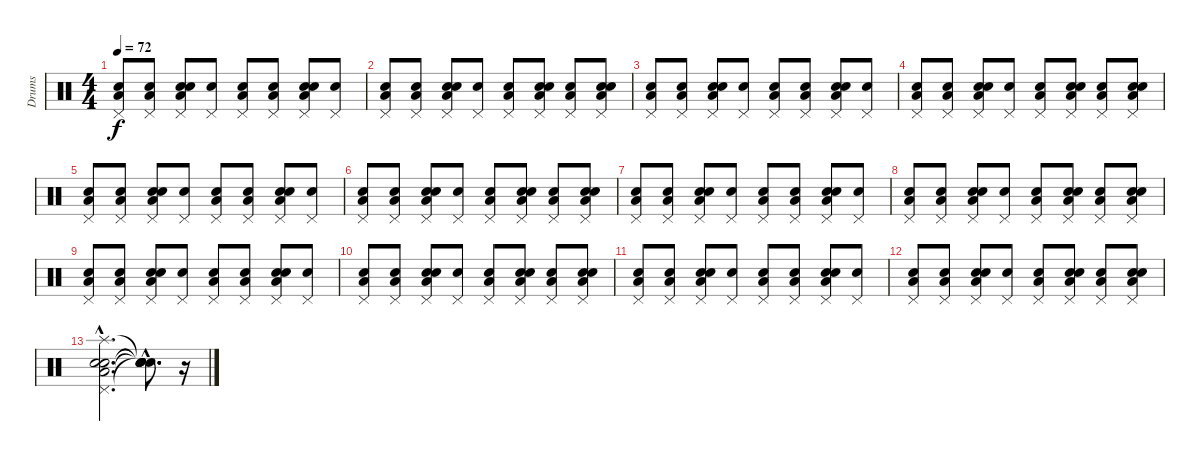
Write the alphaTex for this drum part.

\track ("Drums" "Drums") {instrument percussion}
\staff {score}
\articulation defaults
\ts (4 4)
\tempo 72
\clef neutral
\ks c
("Snare (hit)" "Low Floor Tom (hit)" "Pedal Hi-Hat (hit)").8{dy f} ("Snare (hit)" "Low Floor Tom (hit)" "Pedal Hi-Hat (hit)").8 ("Snare (hit)" "Electric Snare (hit)" "Low Floor Tom (hit)" "Pedal Hi-Hat (hit)").8 ("Snare (hit)" "Pedal Hi-Hat (hit)").8 ("Snare (hit)" "Low Floor Tom (hit)" "Pedal Hi-Hat (hit)").8 ("Snare (hit)" "Low Floor Tom (hit)" "Pedal Hi-Hat (hit)").8 ("Snare (hit)" "Electric Snare (hit)" "Low Floor Tom (hit)" "Pedal Hi-Hat (hit)").8 ("Snare (hit)" "Pedal Hi-Hat (hit)").8 |
("Snare (hit)" "Low Floor Tom (hit)" "Pedal Hi-Hat (hit)").8 ("Snare (hit)" "Low Floor Tom (hit)" "Pedal Hi-Hat (hit)").8 ("Snare (hit)" "Electric Snare (hit)" "Low Floor Tom (hit)" "Pedal Hi-Hat (hit)").8 ("Snare (hit)" "Pedal Hi-Hat (hit)").8 ("Snare (hit)" "Low Floor Tom (hit)" "Pedal Hi-Hat (hit)").8 ("Snare (hit)" "Electric Snare (hit)" "Low Floor Tom (hit)" "Pedal Hi-Hat (hit)").8 ("Snare (hit)" "Low Floor Tom (hit)" "Pedal Hi-Hat (hit)").8 ("Snare (hit)" "Electric Snare (hit)" "Low Floor Tom (hit)" "Pedal Hi-Hat (hit)").8 |
("Snare (hit)" "Low Floor Tom (hit)" "Pedal Hi-Hat (hit)").8 ("Snare (hit)" "Low Floor Tom (hit)" "Pedal Hi-Hat (hit)").8 ("Snare (hit)" "Electric Snare (hit)" "Low Floor Tom (hit)" "Pedal Hi-Hat (hit)").8 ("Snare (hit)" "Pedal Hi-Hat (hit)").8 ("Snare (hit)" "Low Floor Tom (hit)" "Pedal Hi-Hat (hit)").8 ("Snare (hit)" "Low Floor Tom (hit)" "Pedal Hi-Hat (hit)").8 ("Snare (hit)" "Electric Snare (hit)" "Low Floor Tom (hit)" "Pedal Hi-Hat (hit)").8 ("Snare (hit)" "Pedal Hi-Hat (hit)").8 |
("Snare (hit)" "Low Floor Tom (hit)" "Pedal Hi-Hat (hit)").8 ("Snare (hit)" "Low Floor Tom (hit)" "Pedal Hi-Hat (hit)").8 ("Snare (hit)" "Electric Snare (hit)" "Low Floor Tom (hit)" "Pedal Hi-Hat (hit)").8 ("Snare (hit)" "Pedal Hi-Hat (hit)").8 ("Snare (hit)" "Low Floor Tom (hit)" "Pedal Hi-Hat (hit)").8 ("Snare (hit)" "Electric Snare (hit)" "Low Floor Tom (hit)" "Pedal Hi-Hat (hit)").8 ("Snare (hit)" "Low Floor Tom (hit)" "Pedal Hi-Hat (hit)").8 ("Snare (hit)" "Electric Snare (hit)" "Low Floor Tom (hit)" "Pedal Hi-Hat (hit)").8 |
("Snare (hit)" "Low Floor Tom (hit)" "Pedal Hi-Hat (hit)").8 ("Snare (hit)" "Low Floor Tom (hit)" "Pedal Hi-Hat (hit)").8 ("Snare (hit)" "Electric Snare (hit)" "Low Floor Tom (hit)" "Pedal Hi-Hat (hit)").8 ("Snare (hit)" "Pedal Hi-Hat (hit)").8 ("Snare (hit)" "Low Floor Tom (hit)" "Pedal Hi-Hat (hit)").8 ("Snare (hit)" "Low Floor Tom (hit)" "Pedal Hi-Hat (hit)").8 ("Snare (hit)" "Electric Snare (hit)" "Low Floor Tom (hit)" "Pedal Hi-Hat (hit)").8 ("Snare (hit)" "Pedal Hi-Hat (hit)").8 |
("Snare (hit)" "Low Floor Tom (hit)" "Pedal Hi-Hat (hit)").8 ("Snare (hit)" "Low Floor Tom (hit)" "Pedal Hi-Hat (hit)").8 ("Snare (hit)" "Electric Snare (hit)" "Low Floor Tom (hit)" "Pedal Hi-Hat (hit)").8 ("Snare (hit)" "Pedal Hi-Hat (hit)").8 ("Snare (hit)" "Low Floor Tom (hit)" "Pedal Hi-Hat (hit)").8 ("Snare (hit)" "Electric Snare (hit)" "Low Floor Tom (hit)" "Pedal Hi-Hat (hit)").8 ("Snare (hit)" "Low Floor Tom (hit)" "Pedal Hi-Hat (hit)").8 ("Snare (hit)" "Electric Snare (hit)" "Low Floor Tom (hit)" "Pedal Hi-Hat (hit)").8 |
("Snare (hit)" "Low Floor Tom (hit)" "Pedal Hi-Hat (hit)").8 ("Snare (hit)" "Low Floor Tom (hit)" "Pedal Hi-Hat (hit)").8 ("Snare (hit)" "Electric Snare (hit)" "Low Floor Tom (hit)" "Pedal Hi-Hat (hit)").8 ("Snare (hit)" "Pedal Hi-Hat (hit)").8 ("Snare (hit)" "Low Floor Tom (hit)" "Pedal Hi-Hat (hit)").8 ("Snare (hit)" "Low Floor Tom (hit)" "Pedal Hi-Hat (hit)").8 ("Snare (hit)" "Electric Snare (hit)" "Low Floor Tom (hit)" "Pedal Hi-Hat (hit)").8 ("Snare (hit)" "Pedal Hi-Hat (hit)").8 |
("Snare (hit)" "Low Floor Tom (hit)" "Pedal Hi-Hat (hit)").8 ("Snare (hit)" "Low Floor Tom (hit)" "Pedal Hi-Hat (hit)").8 ("Snare (hit)" "Electric Snare (hit)" "Low Floor Tom (hit)" "Pedal Hi-Hat (hit)").8 ("Snare (hit)" "Pedal Hi-Hat (hit)").8 ("Snare (hit)" "Low Floor Tom (hit)" "Pedal Hi-Hat (hit)").8 ("Snare (hit)" "Electric Snare (hit)" "Low Floor Tom (hit)" "Pedal Hi-Hat (hit)").8 ("Snare (hit)" "Low Floor Tom (hit)" "Pedal Hi-Hat (hit)").8 ("Snare (hit)" "Electric Snare (hit)" "Low Floor Tom (hit)" "Pedal Hi-Hat (hit)").8 |
("Snare (hit)" "Low Floor Tom (hit)" "Pedal Hi-Hat (hit)").8 ("Snare (hit)" "Low Floor Tom (hit)" "Pedal Hi-Hat (hit)").8 ("Snare (hit)" "Electric Snare (hit)" "Low Floor Tom (hit)" "Pedal Hi-Hat (hit)").8 ("Snare (hit)" "Pedal Hi-Hat (hit)").8 ("Snare (hit)" "Low Floor Tom (hit)" "Pedal Hi-Hat (hit)").8 ("Snare (hit)" "Low Floor Tom (hit)" "Pedal Hi-Hat (hit)").8 ("Snare (hit)" "Electric Snare (hit)" "Low Floor Tom (hit)" "Pedal Hi-Hat (hit)").8 ("Snare (hit)" "Pedal Hi-Hat (hit)").8 |
("Snare (hit)" "Low Floor Tom (hit)" "Pedal Hi-Hat (hit)").8 ("Snare (hit)" "Low Floor Tom (hit)" "Pedal Hi-Hat (hit)").8 ("Snare (hit)" "Electric Snare (hit)" "Low Floor Tom (hit)" "Pedal Hi-Hat (hit)").8 ("Snare (hit)" "Pedal Hi-Hat (hit)").8 ("Snare (hit)" "Low Floor Tom (hit)" "Pedal Hi-Hat (hit)").8 ("Snare (hit)" "Electric Snare (hit)" "Low Floor Tom (hit)" "Pedal Hi-Hat (hit)").8 ("Snare (hit)" "Low Floor Tom (hit)" "Pedal Hi-Hat (hit)").8 ("Snare (hit)" "Electric Snare (hit)" "Low Floor Tom (hit)" "Pedal Hi-Hat (hit)").8 |
("Snare (hit)" "Low Floor Tom (hit)" "Pedal Hi-Hat (hit)").8 ("Snare (hit)" "Low Floor Tom (hit)" "Pedal Hi-Hat (hit)").8 ("Snare (hit)" "Electric Snare (hit)" "Low Floor Tom (hit)" "Pedal Hi-Hat (hit)").8 ("Snare (hit)" "Pedal Hi-Hat (hit)").8 ("Snare (hit)" "Low Floor Tom (hit)" "Pedal Hi-Hat (hit)").8 ("Snare (hit)" "Low Floor Tom (hit)" "Pedal Hi-Hat (hit)").8 ("Snare (hit)" "Electric Snare (hit)" "Low Floor Tom (hit)" "Pedal Hi-Hat (hit)").8 ("Snare (hit)" "Pedal Hi-Hat (hit)").8 |
("Snare (hit)" "Low Floor Tom (hit)" "Pedal Hi-Hat (hit)").8 ("Snare (hit)" "Low Floor Tom (hit)" "Pedal Hi-Hat (hit)").8 ("Snare (hit)" "Electric Snare (hit)" "Low Floor Tom (hit)" "Pedal Hi-Hat (hit)").8 ("Snare (hit)" "Pedal Hi-Hat (hit)").8 ("Snare (hit)" "Low Floor Tom (hit)" "Pedal Hi-Hat (hit)").8 ("Snare (hit)" "Electric Snare (hit)" "Low Floor Tom (hit)" "Pedal Hi-Hat (hit)").8 ("Snare (hit)" "Low Floor Tom (hit)" "Pedal Hi-Hat (hit)").8 ("Snare (hit)" "Electric Snare (hit)" "Low Floor Tom (hit)" "Pedal Hi-Hat (hit)").8 |
("Snare (hit)"{hac} "Electric Snare (hit)"{hac} "Low Floor Tom (hit)"{hac} "Pedal Hi-Hat (hit)"{hac} "Splash (hit)"{hac}).2{d} ("Snare (hit)"{hac t} "Snare (hit)"{hac t} "Snare (hit)"{hac t} "Snare (hit)"{hac t} "Snare (hit)"{hac t}).8{d} r.16
